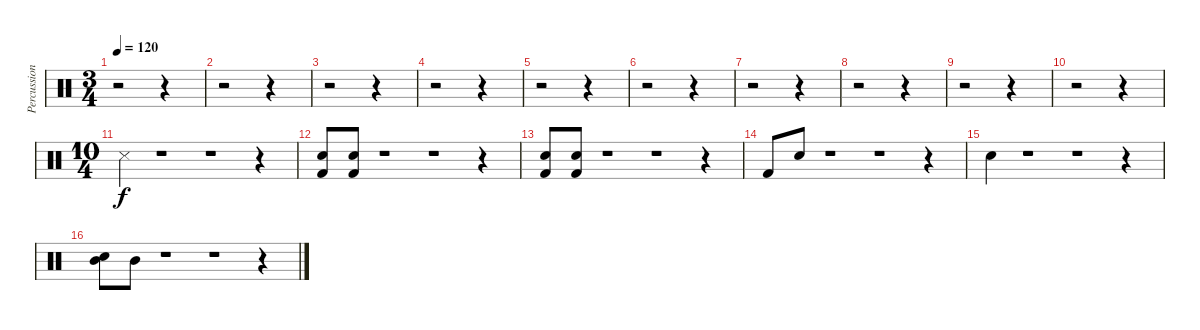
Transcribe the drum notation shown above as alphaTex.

\track ("Percussion" "Percussion") {instrument percussion}
\staff {score}
\articulation defaults
\ts (3 4)
\tempo 120
\clef neutral
\ks c
r.2{dy f} r.4 |
r.2 r.4 |
r.2 r.4 |
r.2 r.4 |
r.2 r.4 |
r.2 r.4 |
r.2 r.4 |
r.2 r.4 |
r.2 r.4 |
r.2 r.4 |
\ts (10 4)
"Snare (side stick) 3".4 r.1 r.1 r.4 |
("Electric Snare (hit)" "Kick (hit) 2").8 ("Electric Snare (hit)" "Kick (hit) 2").8 r.1 r.1 r.4 |
("Electric Snare (hit)" "Kick (hit) 2").8 ("Electric Snare (hit)" "Kick (hit) 2").8 r.1 r.1 r.4 |
"Kick (hit) 2".8 "Electric Snare (hit)".8 r.1 r.1 r.4 |
"Electric Snare (hit)".4 r.1 r.1 r.4 |
("Electric Snare (hit)" "Mid Tom (hit)").8 "Mid Tom (hit)".8 r.1 r.1 r.4
